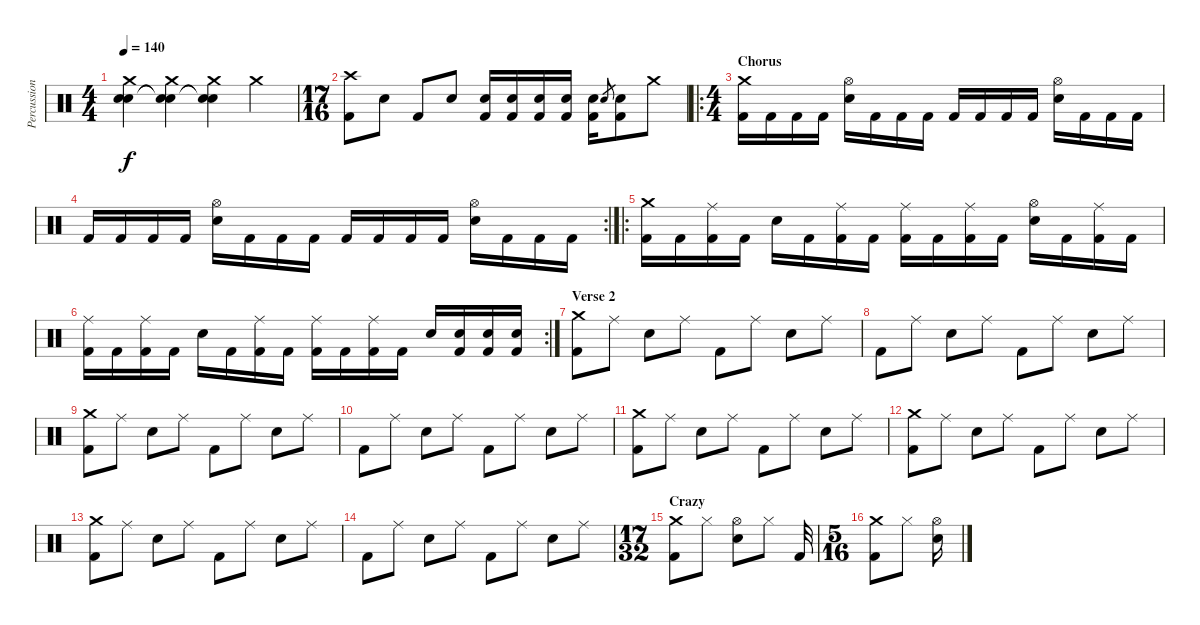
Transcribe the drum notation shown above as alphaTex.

\track ("Percussion" "Percussion") {instrument percussion}
\staff {score}
\articulation defaults
\ts (4 4)
\tempo 140
\clef neutral
\ks c
("Crash medium (hit)" "Electric Snare (hit)" "Snare (hit)").4{dy f} ("Crash medium (hit)" "Snare (hit)"{t} "Snare (hit)"{t}).4 ("Crash medium (hit)" "Snare (hit)"{t} "Snare (hit)"{t}).4 "Crash medium (hit)".4 |
\ts (17 16)
("Crash high (hit)" "Kick (hit) 2").8 "Electric Snare (hit)".8 "Kick (hit) 2".8 "Electric Snare (hit)".8 ("Electric Snare (hit)" "Kick (hit) 2").16 ("Electric Snare (hit)" "Kick (hit) 2").16 ("Electric Snare (hit)" "Kick (hit) 2").16 ("Electric Snare (hit)" "Kick (hit) 2").16 ("Electric Snare (hit)" "Kick (hit) 2").16 "Electric Snare (hit)".8{gr} ("Electric Snare (hit)" "Kick (hit) 2").8 "Crash medium (hit)".8 |
\ro
\ts (4 4)
\section ("" "Chorus")
("Crash medium (hit)" "Kick (hit) 2").16 "Kick (hit) 2".16 "Kick (hit) 2".16 "Kick (hit) 2".16 ("Hi-Hat (open)" "Electric Snare (hit)").16 "Kick (hit) 2".16 "Kick (hit) 2".16 "Kick (hit) 2".16 "Kick (hit) 2".16 "Kick (hit) 2".16 "Kick (hit) 2".16 "Kick (hit) 2".16 ("Hi-Hat (open)" "Electric Snare (hit)").16 "Kick (hit) 2".16 "Kick (hit) 2".16 "Kick (hit) 2".16 |
\rc 2 "Kick (hit) 2".16 "Kick (hit) 2".16 "Kick (hit) 2".16 "Kick (hit) 2".16
("Hi-Hat (open)" "Electric Snare (hit)").16 "Kick (hit) 2".16 "Kick (hit) 2".16 "Kick (hit) 2".16 "Kick (hit) 2".16 "Kick (hit) 2".16 "Kick (hit) 2".16 "Kick (hit) 2".16 ("Hi-Hat (open)" "Electric Snare (hit)").16 "Kick (hit) 2".16 "Kick (hit) 2".16 "Kick (hit) 2".16 |
\ro
("Crash medium (hit)" "Kick (hit) 2").16 "Kick (hit) 2".16 ("Ride (middle)" "Kick (hit) 2").16 "Kick (hit) 2".16 "Electric Snare (hit)".16 "Kick (hit) 2".16 ("Ride (middle)" "Kick (hit) 2").16 "Kick (hit) 2".16 ("Ride (middle)" "Kick (hit) 2").16 "Kick (hit) 2".16 ("Ride (middle)" "Kick (hit) 2").16 "Kick (hit) 2".16 ("Hi-Hat (open)" "Electric Snare (hit)").16 "Kick (hit) 2".16 ("Ride (middle)" "Kick (hit) 2").16 "Kick (hit) 2".16 |
\rc 2
("Ride (middle)" "Kick (hit) 2").16 "Kick (hit) 2".16 ("Ride (middle)" "Kick (hit) 2").16 "Kick (hit) 2".16 "Electric Snare (hit)".16 "Kick (hit) 2".16 ("Ride (middle)" "Kick (hit) 2").16 "Kick (hit) 2".16 ("Ride (middle)" "Kick (hit) 2").16 "Kick (hit) 2".16 ("Ride (middle)" "Kick (hit) 2").16 "Kick (hit) 2".16 "Electric Snare (hit)".16 ("Electric Snare (hit)" "Kick (hit) 2").16 ("Electric Snare (hit)" "Kick (hit) 2").16 ("Electric Snare (hit)" "Kick (hit) 2").16 |
\section ("" "Verse 2")
("Crash medium (hit)" "Kick (hit) 2").8 "Ride (middle)".8 "Electric Snare (hit)".8 "Ride (middle)".8 "Kick (hit) 2".8 "Ride (middle)".8 "Electric Snare (hit)".8 "Ride (middle)".8 |
"Kick (hit) 2".8 "Ride (middle)".8 "Electric Snare (hit)".8 "Ride (middle)".8 "Kick (hit) 2".8 "Ride (middle)".8 "Electric Snare (hit)".8 "Ride (middle)".8 |
("Crash medium (hit)" "Kick (hit) 2").8 "Ride (middle)".8 "Electric Snare (hit)".8 "Ride (middle)".8 "Kick (hit) 2".8 "Ride (middle)".8 "Electric Snare (hit)".8 "Ride (middle)".8 |
"Kick (hit) 2".8 "Ride (middle)".8 "Electric Snare (hit)".8 "Ride (middle)".8 "Kick (hit) 2".8 "Ride (middle)".8 "Electric Snare (hit)".8 "Ride (middle)".8 |
("Crash medium (hit)" "Kick (hit) 2").8 "Ride (middle)".8 "Electric Snare (hit)".8 "Ride (middle)".8 "Kick (hit) 2".8 "Ride (middle)".8 "Electric Snare (hit)".8 "Ride (middle)".8 |
("Crash medium (hit)" "Kick (hit) 2").8 "Ride (middle)".8 "Electric Snare (hit)".8 "Ride (middle)".8 "Kick (hit) 2".8 "Ride (middle)".8 "Electric Snare (hit)".8 "Ride (middle)".8 |
("Crash medium (hit)" "Kick (hit) 2").8 "Ride (middle)".8 "Electric Snare (hit)".8 "Ride (middle)".8 "Kick (hit) 2".8 "Ride (middle)".8 "Electric Snare (hit)".8 "Ride (middle)".8 |
"Kick (hit) 2".8 "Ride (middle)".8 "Electric Snare (hit)".8 "Ride (middle)".8 "Kick (hit) 2".8 "Ride (middle)".8 "Electric Snare (hit)".8 "Ride (middle)".8 |
\ts (17 32)
\section ("" "Crazy")
("Crash medium (hit)" "Kick (hit) 2").8 "Hi-Hat (closed)".8 ("Hi-Hat (open)" "Electric Snare (hit)").8 "Hi-Hat (closed)".8 "Kick (hit) 2".32 |
\ts (5 16)
("Crash medium (hit)" "Kick (hit) 2").8 "Hi-Hat (closed)".8 ("Hi-Hat (open)" "Electric Snare (hit)").16
